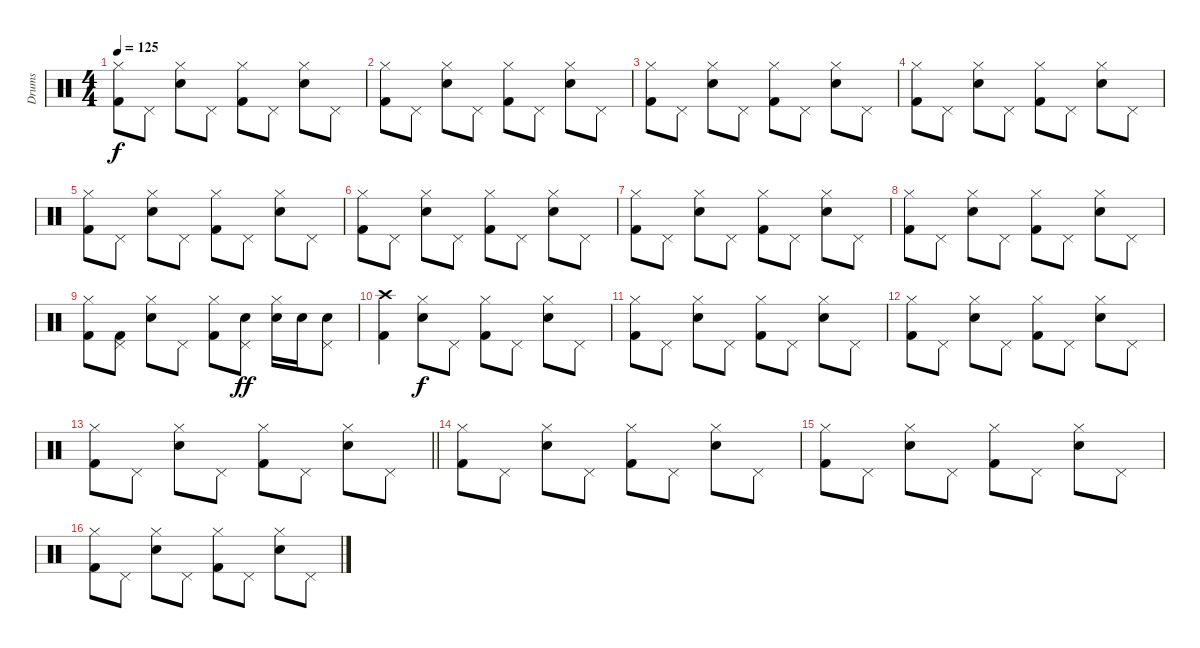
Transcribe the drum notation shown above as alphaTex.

\track ("Drums" "Drums") {instrument percussion}
\staff {score}
\articulation defaults
\ts (4 4)
\tempo 125
\clef neutral
\ks c
("Hi-Hat (closed)" "Kick (hit) 2").8{dy f} "Pedal Hi-Hat (hit)".8 ("Hi-Hat (closed)" "Electric Snare (hit)").8 "Pedal Hi-Hat (hit)".8 ("Hi-Hat (closed)" "Kick (hit) 2").8 "Pedal Hi-Hat (hit)".8 ("Hi-Hat (closed)" "Electric Snare (hit)").8 "Pedal Hi-Hat (hit)".8 |
("Hi-Hat (closed)" "Kick (hit) 2").8 "Pedal Hi-Hat (hit)".8 ("Hi-Hat (closed)" "Electric Snare (hit)").8 "Pedal Hi-Hat (hit)".8 ("Hi-Hat (closed)" "Kick (hit) 2").8 "Pedal Hi-Hat (hit)".8 ("Hi-Hat (closed)" "Electric Snare (hit)").8 "Pedal Hi-Hat (hit)".8 |
("Hi-Hat (closed)" "Kick (hit) 2").8 "Pedal Hi-Hat (hit)".8 ("Hi-Hat (closed)" "Electric Snare (hit)").8 "Pedal Hi-Hat (hit)".8 ("Hi-Hat (closed)" "Kick (hit) 2").8 "Pedal Hi-Hat (hit)".8 ("Hi-Hat (closed)" "Electric Snare (hit)").8 "Pedal Hi-Hat (hit)".8 |
("Hi-Hat (closed)" "Kick (hit) 2").8 "Pedal Hi-Hat (hit)".8 ("Hi-Hat (closed)" "Electric Snare (hit)").8 "Pedal Hi-Hat (hit)".8 ("Hi-Hat (closed)" "Kick (hit) 2").8 "Pedal Hi-Hat (hit)".8 ("Hi-Hat (closed)" "Electric Snare (hit)").8 "Pedal Hi-Hat (hit)".8 |
("Hi-Hat (closed)" "Kick (hit) 2").8 "Pedal Hi-Hat (hit)".8 ("Hi-Hat (closed)" "Electric Snare (hit)").8 "Pedal Hi-Hat (hit)".8 ("Hi-Hat (closed)" "Kick (hit) 2").8 "Pedal Hi-Hat (hit)".8 ("Hi-Hat (closed)" "Electric Snare (hit)").8 "Pedal Hi-Hat (hit)".8 |
("Hi-Hat (closed)" "Kick (hit) 2").8 "Pedal Hi-Hat (hit)".8 ("Hi-Hat (closed)" "Electric Snare (hit)").8 "Pedal Hi-Hat (hit)".8 ("Hi-Hat (closed)" "Kick (hit) 2").8 "Pedal Hi-Hat (hit)".8 ("Hi-Hat (closed)" "Electric Snare (hit)").8 "Pedal Hi-Hat (hit)".8 |
("Hi-Hat (closed)" "Kick (hit) 2").8 "Pedal Hi-Hat (hit)".8 ("Hi-Hat (closed)" "Electric Snare (hit)").8 "Pedal Hi-Hat (hit)".8 ("Hi-Hat (closed)" "Kick (hit) 2").8 "Pedal Hi-Hat (hit)".8 ("Hi-Hat (closed)" "Electric Snare (hit)").8 "Pedal Hi-Hat (hit)".8 |
("Hi-Hat (closed)" "Kick (hit) 2").8 "Pedal Hi-Hat (hit)".8 ("Hi-Hat (closed)" "Electric Snare (hit)").8 "Pedal Hi-Hat (hit)".8 ("Hi-Hat (closed)" "Kick (hit) 2").8 "Pedal Hi-Hat (hit)".8 ("Hi-Hat (closed)" "Electric Snare (hit)").8 "Pedal Hi-Hat (hit)".8 |
("Hi-Hat (closed)" "Kick (hit) 2").8 ("Pedal Hi-Hat (hit)" "Kick (hit) 2").8 ("Hi-Hat (closed)" "Electric Snare (hit)").8 "Pedal Hi-Hat (hit)".8 ("Hi-Hat (closed)" "Kick (hit) 2").8 ("Pedal Hi-Hat (hit)" "Snare (hit) 2").8{dy ff} ("Hi-Hat (closed)" "Snare (hit) 2").16 "Snare (hit) 2".16 ("Pedal Hi-Hat (hit)" "Snare (hit) 2").8 |
("Crash high (hit)" "Kick (hit) 2").4 ("Hi-Hat (closed)" "Electric Snare (hit)").8{dy f} "Pedal Hi-Hat (hit)".8 ("Hi-Hat (closed)" "Kick (hit) 2").8 "Pedal Hi-Hat (hit)".8 ("Hi-Hat (closed)" "Electric Snare (hit)").8 "Pedal Hi-Hat (hit)".8 |
("Hi-Hat (closed)" "Kick (hit) 2").8 "Pedal Hi-Hat (hit)".8 ("Hi-Hat (closed)" "Electric Snare (hit)").8 "Pedal Hi-Hat (hit)".8 ("Hi-Hat (closed)" "Kick (hit) 2").8 "Pedal Hi-Hat (hit)".8 ("Hi-Hat (closed)" "Electric Snare (hit)").8 "Pedal Hi-Hat (hit)".8 |
("Hi-Hat (closed)" "Kick (hit) 2").8 "Pedal Hi-Hat (hit)".8 ("Hi-Hat (closed)" "Electric Snare (hit)").8 "Pedal Hi-Hat (hit)".8 ("Hi-Hat (closed)" "Kick (hit) 2").8 "Pedal Hi-Hat (hit)".8 ("Hi-Hat (closed)" "Electric Snare (hit)").8 "Pedal Hi-Hat (hit)".8 |
\barLineRight lightlight
("Hi-Hat (closed)" "Kick (hit) 2").8 "Pedal Hi-Hat (hit)".8 ("Hi-Hat (closed)" "Electric Snare (hit)").8 "Pedal Hi-Hat (hit)".8 ("Hi-Hat (closed)" "Kick (hit) 2").8 "Pedal Hi-Hat (hit)".8 ("Hi-Hat (closed)" "Electric Snare (hit)").8 "Pedal Hi-Hat (hit)".8 |
("Hi-Hat (closed)" "Kick (hit) 2").8 "Pedal Hi-Hat (hit)".8 ("Hi-Hat (closed)" "Electric Snare (hit)").8 "Pedal Hi-Hat (hit)".8 ("Hi-Hat (closed)" "Kick (hit) 2").8 "Pedal Hi-Hat (hit)".8 ("Hi-Hat (closed)" "Electric Snare (hit)").8 "Pedal Hi-Hat (hit)".8 |
("Hi-Hat (closed)" "Kick (hit) 2").8 "Pedal Hi-Hat (hit)".8 ("Hi-Hat (closed)" "Electric Snare (hit)").8 "Pedal Hi-Hat (hit)".8 ("Hi-Hat (closed)" "Kick (hit) 2").8 "Pedal Hi-Hat (hit)".8 ("Hi-Hat (closed)" "Electric Snare (hit)").8 "Pedal Hi-Hat (hit)".8 |
("Hi-Hat (closed)" "Kick (hit) 2").8 "Pedal Hi-Hat (hit)".8 ("Hi-Hat (closed)" "Electric Snare (hit)").8 "Pedal Hi-Hat (hit)".8 ("Hi-Hat (closed)" "Kick (hit) 2").8 "Pedal Hi-Hat (hit)".8 ("Hi-Hat (closed)" "Electric Snare (hit)").8 "Pedal Hi-Hat (hit)".8
